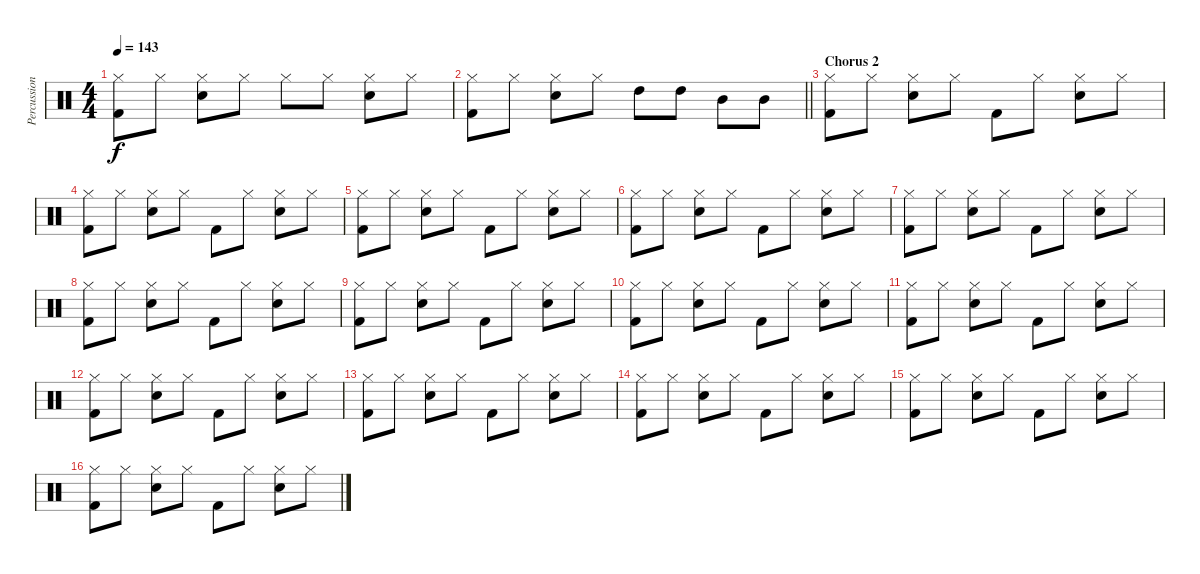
\track ("Percussion" "Percussion") {instrument percussion}
\staff {score}
\articulation defaults
\ts (4 4)
\tempo 143
\clef neutral
\ks c
("Hi-Hat (closed)" "Kick (hit) 2").8{dy f} "Hi-Hat (closed)".8 ("Hi-Hat (closed)" "Electric Snare (hit)").8 "Hi-Hat (closed)".8 "Hi-Hat (closed)".8 "Hi-Hat (closed)".8 ("Hi-Hat (closed)" "Electric Snare (hit)").8 "Hi-Hat (closed)".8 |
\barLineRight lightlight
("Hi-Hat (closed)" "Kick (hit) 2").8 "Hi-Hat (closed)".8 ("Hi-Hat (closed)" "Electric Snare (hit)").8 "Hi-Hat (closed)".8 "High Tom (hit)".8 "High Tom (hit)".8 "Mid Tom (hit)".8 "Mid Tom (hit)".8 |
\section ("" "Chorus 2")
("Hi-Hat (closed)" "Kick (hit) 2").8 "Hi-Hat (closed)".8 ("Hi-Hat (closed)" "Electric Snare (hit)").8 "Hi-Hat (closed)".8 "Kick (hit) 2".8 "Hi-Hat (closed)".8 ("Hi-Hat (closed)" "Electric Snare (hit)").8 "Hi-Hat (closed)".8 |
("Hi-Hat (closed)" "Kick (hit) 2").8 "Hi-Hat (closed)".8 ("Hi-Hat (closed)" "Electric Snare (hit)").8 "Hi-Hat (closed)".8 "Kick (hit) 2".8 "Hi-Hat (closed)".8 ("Hi-Hat (closed)" "Electric Snare (hit)").8 "Hi-Hat (closed)".8 |
("Hi-Hat (closed)" "Kick (hit) 2").8 "Hi-Hat (closed)".8 ("Hi-Hat (closed)" "Electric Snare (hit)").8 "Hi-Hat (closed)".8 "Kick (hit) 2".8 "Hi-Hat (closed)".8 ("Hi-Hat (closed)" "Electric Snare (hit)").8 "Hi-Hat (closed)".8 |
("Hi-Hat (closed)" "Kick (hit) 2").8 "Hi-Hat (closed)".8 ("Hi-Hat (closed)" "Electric Snare (hit)").8 "Hi-Hat (closed)".8 "Kick (hit) 2".8 "Hi-Hat (closed)".8 ("Hi-Hat (closed)" "Electric Snare (hit)").8 "Hi-Hat (closed)".8 |
("Hi-Hat (closed)" "Kick (hit) 2").8 "Hi-Hat (closed)".8 ("Hi-Hat (closed)" "Electric Snare (hit)").8 "Hi-Hat (closed)".8 "Kick (hit) 2".8 "Hi-Hat (closed)".8 ("Hi-Hat (closed)" "Electric Snare (hit)").8 "Hi-Hat (closed)".8 |
("Hi-Hat (closed)" "Kick (hit) 2").8 "Hi-Hat (closed)".8 ("Hi-Hat (closed)" "Electric Snare (hit)").8 "Hi-Hat (closed)".8 "Kick (hit) 2".8 "Hi-Hat (closed)".8 ("Hi-Hat (closed)" "Electric Snare (hit)").8 "Hi-Hat (closed)".8 |
("Hi-Hat (closed)" "Kick (hit) 2").8 "Hi-Hat (closed)".8 ("Hi-Hat (closed)" "Electric Snare (hit)").8 "Hi-Hat (closed)".8 "Kick (hit) 2".8 "Hi-Hat (closed)".8 ("Hi-Hat (closed)" "Electric Snare (hit)").8 "Hi-Hat (closed)".8 |
("Hi-Hat (closed)" "Kick (hit) 2").8 "Hi-Hat (closed)".8 ("Hi-Hat (closed)" "Electric Snare (hit)").8 "Hi-Hat (closed)".8 "Kick (hit) 2".8 "Hi-Hat (closed)".8 ("Hi-Hat (closed)" "Electric Snare (hit)").8 "Hi-Hat (closed)".8 |
("Hi-Hat (closed)" "Kick (hit) 2").8 "Hi-Hat (closed)".8 ("Hi-Hat (closed)" "Electric Snare (hit)").8 "Hi-Hat (closed)".8 "Kick (hit) 2".8 "Hi-Hat (closed)".8 ("Hi-Hat (closed)" "Electric Snare (hit)").8 "Hi-Hat (closed)".8 |
("Hi-Hat (closed)" "Kick (hit) 2").8 "Hi-Hat (closed)".8 ("Hi-Hat (closed)" "Electric Snare (hit)").8 "Hi-Hat (closed)".8 "Kick (hit) 2".8 "Hi-Hat (closed)".8 ("Hi-Hat (closed)" "Electric Snare (hit)").8 "Hi-Hat (closed)".8 |
("Hi-Hat (closed)" "Kick (hit) 2").8 "Hi-Hat (closed)".8 ("Hi-Hat (closed)" "Electric Snare (hit)").8 "Hi-Hat (closed)".8 "Kick (hit) 2".8 "Hi-Hat (closed)".8 ("Hi-Hat (closed)" "Electric Snare (hit)").8 "Hi-Hat (closed)".8 |
("Hi-Hat (closed)" "Kick (hit) 2").8 "Hi-Hat (closed)".8 ("Hi-Hat (closed)" "Electric Snare (hit)").8 "Hi-Hat (closed)".8 "Kick (hit) 2".8 "Hi-Hat (closed)".8 ("Hi-Hat (closed)" "Electric Snare (hit)").8 "Hi-Hat (closed)".8 |
("Hi-Hat (closed)" "Kick (hit) 2").8 "Hi-Hat (closed)".8 ("Hi-Hat (closed)" "Electric Snare (hit)").8 "Hi-Hat (closed)".8 "Kick (hit) 2".8 "Hi-Hat (closed)".8 ("Hi-Hat (closed)" "Electric Snare (hit)").8 "Hi-Hat (closed)".8 |
("Hi-Hat (closed)" "Kick (hit) 2").8 "Hi-Hat (closed)".8 ("Hi-Hat (closed)" "Electric Snare (hit)").8 "Hi-Hat (closed)".8 "Kick (hit) 2".8 "Hi-Hat (closed)".8 ("Hi-Hat (closed)" "Electric Snare (hit)").8 "Hi-Hat (closed)".8
